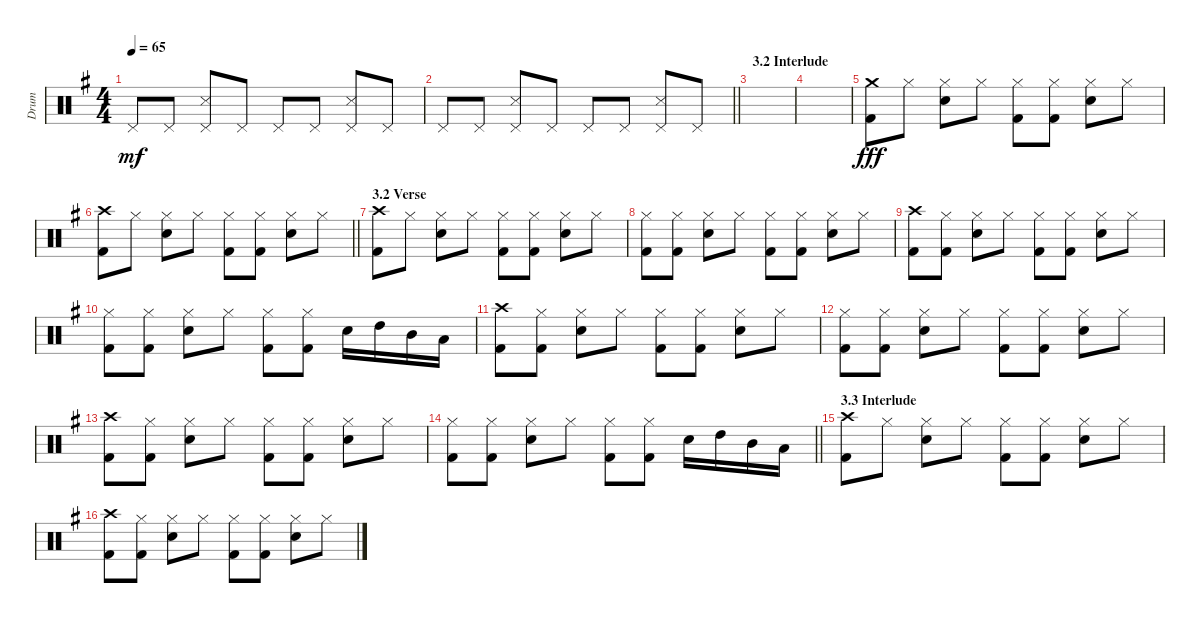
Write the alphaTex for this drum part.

\track ("Drum" "Drum") {instrument percussion}
\staff {score}
\articulation defaults
\ts (4 4)
\tempo 65
\clef neutral
\ks eminor "Pedal Hi-Hat (hit)".8{dy mf} "Pedal Hi-Hat (hit)".8
("Pedal Hi-Hat (hit)" "Snare (side stick) 3").8 "Pedal Hi-Hat (hit)".8 "Pedal Hi-Hat (hit)".8 "Pedal Hi-Hat (hit)".8 ("Pedal Hi-Hat (hit)" "Snare (side stick) 3").8 "Pedal Hi-Hat (hit)".8 |
\barLineRight lightlight "Pedal Hi-Hat (hit)".8 "Pedal Hi-Hat (hit)".8
("Pedal Hi-Hat (hit)" "Snare (side stick) 3").8 "Pedal Hi-Hat (hit)".8 "Pedal Hi-Hat (hit)".8 "Pedal Hi-Hat (hit)".8 ("Pedal Hi-Hat (hit)" "Snare (side stick) 3").8 "Pedal Hi-Hat (hit)".8 |
\section ("" "3.2 Interlude")
|
|
("Crash medium (hit)" "Kick (hit) 2").8{dy fff} "Hi-Hat (closed)".8 ("Electric Snare (hit)" "Hi-Hat (closed)").8 "Hi-Hat (closed)".8 ("Kick (hit) 2" "Hi-Hat (closed)").8 ("Kick (hit) 2" "Hi-Hat (closed)").8 ("Electric Snare (hit)" "Hi-Hat (closed)").8 "Hi-Hat (closed)".8 |
\barLineRight lightlight
("Crash high (hit)" "Kick (hit) 2").8 "Hi-Hat (closed)".8 ("Electric Snare (hit)" "Hi-Hat (closed)").8 "Hi-Hat (closed)".8 ("Kick (hit) 2" "Hi-Hat (closed)").8 ("Kick (hit) 2" "Hi-Hat (closed)").8 ("Electric Snare (hit)" "Hi-Hat (closed)").8 "Hi-Hat (closed)".8 |
\section ("" "3.2 Verse")
("Crash high (hit)" "Kick (hit) 2").8 "Hi-Hat (closed)".8 ("Electric Snare (hit)" "Hi-Hat (closed)").8 "Hi-Hat (closed)".8 ("Kick (hit) 2" "Hi-Hat (closed)").8 ("Kick (hit) 2" "Hi-Hat (closed)").8 ("Electric Snare (hit)" "Hi-Hat (closed)").8 "Hi-Hat (closed)".8 |
("Hi-Hat (closed)" "Kick (hit) 2").8 ("Kick (hit) 2" "Hi-Hat (closed)").8 ("Electric Snare (hit)" "Hi-Hat (closed)").8 "Hi-Hat (closed)".8 ("Kick (hit) 2" "Hi-Hat (closed)").8 ("Kick (hit) 2" "Hi-Hat (closed)").8 ("Electric Snare (hit)" "Hi-Hat (closed)").8 "Hi-Hat (closed)".8 |
("Crash high (hit)" "Kick (hit) 2").8 ("Kick (hit) 2" "Hi-Hat (closed)").8 ("Electric Snare (hit)" "Hi-Hat (closed)").8 "Hi-Hat (closed)".8 ("Kick (hit) 2" "Hi-Hat (closed)").8 ("Kick (hit) 2" "Hi-Hat (closed)").8 ("Electric Snare (hit)" "Hi-Hat (closed)").8 "Hi-Hat (closed)".8 |
("Hi-Hat (closed)" "Kick (hit) 2").8 ("Kick (hit) 2" "Hi-Hat (closed)").8 ("Electric Snare (hit)" "Hi-Hat (closed)").8 "Hi-Hat (closed)".8 ("Kick (hit) 2" "Hi-Hat (closed)").8 ("Kick (hit) 2" "Hi-Hat (closed)").8 "Electric Snare (hit)".16 "High Tom (hit)".16 "Mid Tom (hit)".16 "Low Tom (hit)".16 |
("Crash high (hit)" "Kick (hit) 2").8 ("Kick (hit) 2" "Hi-Hat (closed)").8 ("Electric Snare (hit)" "Hi-Hat (closed)").8 "Hi-Hat (closed)".8 ("Kick (hit) 2" "Hi-Hat (closed)").8 ("Kick (hit) 2" "Hi-Hat (closed)").8 ("Electric Snare (hit)" "Hi-Hat (closed)").8 "Hi-Hat (closed)".8 |
("Hi-Hat (closed)" "Kick (hit) 2").8 ("Kick (hit) 2" "Hi-Hat (closed)").8 ("Electric Snare (hit)" "Hi-Hat (closed)").8 "Hi-Hat (closed)".8 ("Kick (hit) 2" "Hi-Hat (closed)").8 ("Kick (hit) 2" "Hi-Hat (closed)").8 ("Electric Snare (hit)" "Hi-Hat (closed)").8 "Hi-Hat (closed)".8 |
("Crash high (hit)" "Kick (hit) 2").8 ("Kick (hit) 2" "Hi-Hat (closed)").8 ("Electric Snare (hit)" "Hi-Hat (closed)").8 "Hi-Hat (closed)".8 ("Kick (hit) 2" "Hi-Hat (closed)").8 ("Kick (hit) 2" "Hi-Hat (closed)").8 ("Electric Snare (hit)" "Hi-Hat (closed)").8 "Hi-Hat (closed)".8 |
\barLineRight lightlight
("Hi-Hat (closed)" "Kick (hit) 2").8 ("Kick (hit) 2" "Hi-Hat (closed)").8 ("Electric Snare (hit)" "Hi-Hat (closed)").8 "Hi-Hat (closed)".8 ("Hi-Hat (closed)" "Kick (hit) 2").8 ("Hi-Hat (closed)" "Kick (hit) 2").8 "Electric Snare (hit)".16 "High Tom (hit)".16 "Mid Tom (hit)".16 "Low Tom (hit)".16 |
\section ("" "3.3 Interlude")
("Crash high (hit)" "Kick (hit) 2").8 "Hi-Hat (closed)".8 ("Electric Snare (hit)" "Hi-Hat (closed)").8 "Hi-Hat (closed)".8 ("Kick (hit) 2" "Hi-Hat (closed)").8 ("Kick (hit) 2" "Hi-Hat (closed)").8 ("Electric Snare (hit)" "Hi-Hat (closed)").8 "Hi-Hat (closed)".8 |
("Crash high (hit)" "Kick (hit) 2").8 ("Kick (hit) 2" "Hi-Hat (closed)").8 ("Electric Snare (hit)" "Hi-Hat (closed)").8 "Hi-Hat (closed)".8 ("Kick (hit) 2" "Hi-Hat (closed)").8 ("Kick (hit) 2" "Hi-Hat (closed)").8 ("Electric Snare (hit)" "Hi-Hat (closed)").8 "Hi-Hat (closed)".8
